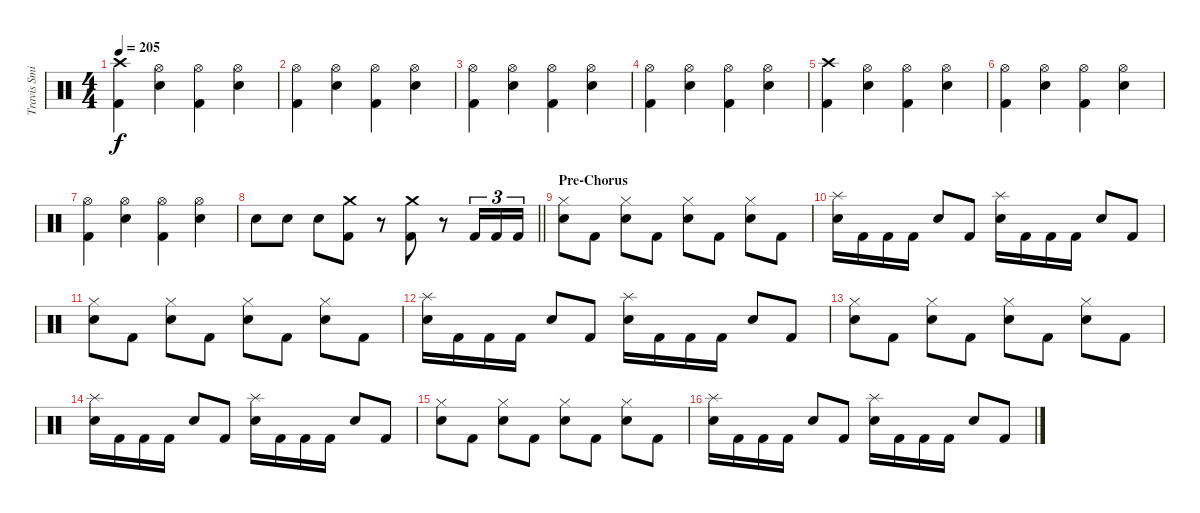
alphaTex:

\track ("Travis Smith" "Travis Smi") {instrument percussion}
\staff {score}
\articulation defaults
\ts (4 4)
\tempo 205
\clef neutral
\ks c
("Crash high (hit)" "Kick (hit) 2").4{dy f} ("Hi-Hat (open)" "Snare (hit) 2").4 ("Hi-Hat (open)" "Kick (hit) 2").4 ("Hi-Hat (open)" "Snare (hit) 2").4 |
("Hi-Hat (open)" "Kick (hit) 2").4 ("Hi-Hat (open)" "Snare (hit) 2").4 ("Hi-Hat (open)" "Kick (hit) 2").4 ("Hi-Hat (open)" "Snare (hit) 2").4 |
("Hi-Hat (open)" "Kick (hit) 2").4 ("Hi-Hat (open)" "Snare (hit) 2").4 ("Hi-Hat (open)" "Kick (hit) 2").4 ("Hi-Hat (open)" "Snare (hit) 2").4 |
("Hi-Hat (open)" "Kick (hit) 2").4 ("Hi-Hat (open)" "Snare (hit) 2").4 ("Hi-Hat (open)" "Kick (hit) 2").4 ("Hi-Hat (open)" "Snare (hit) 2").4 |
("Crash high (hit)" "Kick (hit) 2").4 ("Hi-Hat (open)" "Snare (hit) 2").4 ("Hi-Hat (open)" "Kick (hit) 2").4 ("Hi-Hat (open)" "Snare (hit) 2").4 |
("Hi-Hat (open)" "Kick (hit) 2").4 ("Hi-Hat (open)" "Snare (hit) 2").4 ("Hi-Hat (open)" "Kick (hit) 2").4 ("Hi-Hat (open)" "Snare (hit) 2").4 |
("Hi-Hat (open)" "Kick (hit) 2").4 ("Hi-Hat (open)" "Snare (hit) 2").4 ("Hi-Hat (open)" "Kick (hit) 2").4 ("Hi-Hat (open)" "Snare (hit) 2").4 |
\barLineRight lightlight "Snare (hit) 2".8 "Snare (hit) 2".8 "Snare (hit) 2".8
("Crash medium (hit)" "Kick (hit) 2").8 r.8 ("Crash medium (hit)" "Kick (hit) 2").8 r.8 "Kick (hit) 2".16{tu (3 2)} "Kick (hit) 2".16{tu (3 2)} "Kick (hit) 2".16{tu (3 2)} |
\section ("" "Pre-Chorus")
("Hi-Hat (closed)" "Snare (hit) 2").8 "Kick (hit) 2".8 ("Hi-Hat (closed)" "Snare (hit) 2").8 "Kick (hit) 2".8 ("Hi-Hat (closed)" "Snare (hit) 2").8 "Kick (hit) 2".8 ("Hi-Hat (closed)" "Snare (hit) 2").8 "Kick (hit) 2".8 |
("Splash (hit)" "Snare (hit) 2").16 "Kick (hit) 2".16 "Kick (hit) 2".16 "Kick (hit) 2".16 "Snare (hit) 2".8 "Kick (hit) 2".8 ("Splash (hit)" "Snare (hit) 2").16 "Kick (hit) 2".16 "Kick (hit) 2".16 "Kick (hit) 2".16 "Snare (hit) 2".8 "Kick (hit) 2".8 |
("Hi-Hat (closed)" "Snare (hit) 2").8 "Kick (hit) 2".8 ("Hi-Hat (closed)" "Snare (hit) 2").8 "Kick (hit) 2".8 ("Hi-Hat (closed)" "Snare (hit) 2").8 "Kick (hit) 2".8 ("Hi-Hat (closed)" "Snare (hit) 2").8 "Kick (hit) 2".8 |
("Splash (hit)" "Snare (hit) 2").16 "Kick (hit) 2".16 "Kick (hit) 2".16 "Kick (hit) 2".16 "Snare (hit) 2".8 "Kick (hit) 2".8 ("Splash (hit)" "Snare (hit) 2").16 "Kick (hit) 2".16 "Kick (hit) 2".16 "Kick (hit) 2".16 "Snare (hit) 2".8 "Kick (hit) 2".8 |
("Hi-Hat (closed)" "Snare (hit) 2").8 "Kick (hit) 2".8 ("Hi-Hat (closed)" "Snare (hit) 2").8 "Kick (hit) 2".8 ("Hi-Hat (closed)" "Snare (hit) 2").8 "Kick (hit) 2".8 ("Hi-Hat (closed)" "Snare (hit) 2").8 "Kick (hit) 2".8 |
("Splash (hit)" "Snare (hit) 2").16 "Kick (hit) 2".16 "Kick (hit) 2".16 "Kick (hit) 2".16 "Snare (hit) 2".8 "Kick (hit) 2".8 ("Splash (hit)" "Snare (hit) 2").16 "Kick (hit) 2".16 "Kick (hit) 2".16 "Kick (hit) 2".16 "Snare (hit) 2".8 "Kick (hit) 2".8 |
("Hi-Hat (closed)" "Snare (hit) 2").8 "Kick (hit) 2".8 ("Hi-Hat (closed)" "Snare (hit) 2").8 "Kick (hit) 2".8 ("Hi-Hat (closed)" "Snare (hit) 2").8 "Kick (hit) 2".8 ("Hi-Hat (closed)" "Snare (hit) 2").8 "Kick (hit) 2".8 |
("Splash (hit)" "Snare (hit) 2").16 "Kick (hit) 2".16 "Kick (hit) 2".16 "Kick (hit) 2".16 "Snare (hit) 2".8 "Kick (hit) 2".8 ("Splash (hit)" "Snare (hit) 2").16 "Kick (hit) 2".16 "Kick (hit) 2".16 "Kick (hit) 2".16 "Snare (hit) 2".8 "Kick (hit) 2".8
